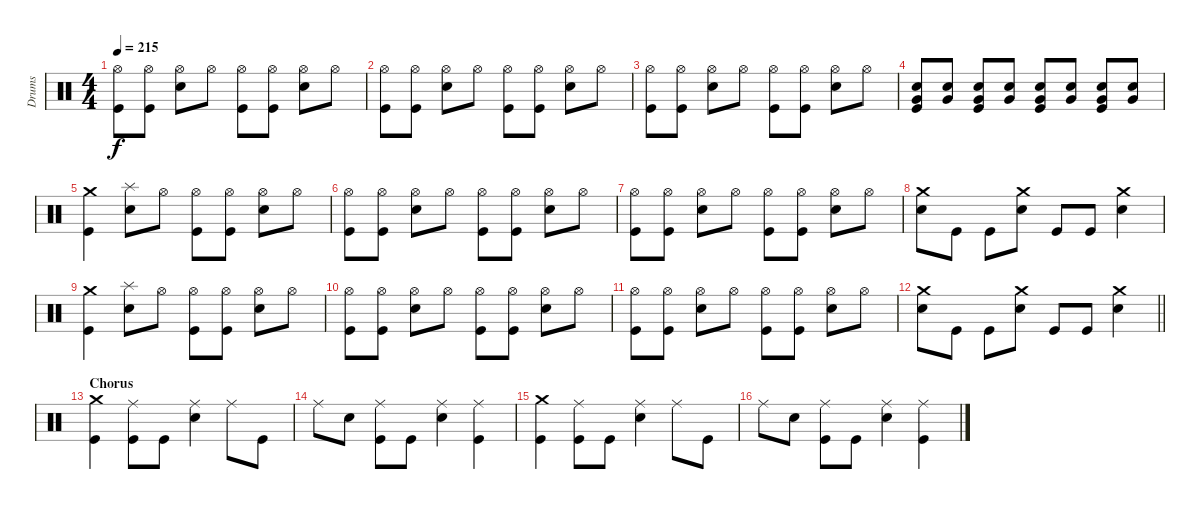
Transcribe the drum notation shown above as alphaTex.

\track ("Drums" "Drums") {instrument percussion}
\staff {score}
\articulation defaults
\ts (4 4)
\tempo 215
\clef neutral
\ks c
("Kick (hit)" "Hi-Hat (open)").8{dy f} ("Kick (hit)" "Hi-Hat (open)").8 ("Snare (hit) 2" "Hi-Hat (open)").8 "Hi-Hat (open)".8 ("Kick (hit)" "Hi-Hat (open)").8 ("Kick (hit)" "Hi-Hat (open)").8 ("Snare (hit) 2" "Hi-Hat (open)").8 "Hi-Hat (open)".8 |
("Kick (hit)" "Hi-Hat (open)").8 ("Kick (hit)" "Hi-Hat (open)").8 ("Snare (hit) 2" "Hi-Hat (open)").8 "Hi-Hat (open)".8 ("Kick (hit)" "Hi-Hat (open)").8 ("Kick (hit)" "Hi-Hat (open)").8 ("Snare (hit) 2" "Hi-Hat (open)").8 "Hi-Hat (open)".8 |
("Kick (hit)" "Hi-Hat (open)").8 ("Kick (hit)" "Hi-Hat (open)").8 ("Snare (hit) 2" "Hi-Hat (open)").8 "Hi-Hat (open)".8 ("Kick (hit)" "Hi-Hat (open)").8 ("Kick (hit)" "Hi-Hat (open)").8 ("Snare (hit) 2" "Hi-Hat (open)").8 "Hi-Hat (open)".8 |
("Kick (hit)" "Very Low Tom (hit)" "Snare (hit) 2").8 ("Snare (hit) 2" "Very Low Tom (hit)").8 ("Kick (hit)" "Very Low Tom (hit)" "Snare (hit) 2").8 ("Snare (hit) 2" "Very Low Tom (hit)").8 ("Kick (hit)" "Very Low Tom (hit)" "Snare (hit) 2").8 ("Snare (hit) 2" "Very Low Tom (hit)").8 ("Kick (hit)" "Very Low Tom (hit)" "Snare (hit) 2").8 ("Snare (hit) 2" "Very Low Tom (hit)").8 |
("Kick (hit)" "Crash medium (hit)").4 ("Snare (hit) 2" "Splash (hit)").8 "Hi-Hat (open)".8 ("Kick (hit)" "Hi-Hat (open)").8 ("Kick (hit)" "Hi-Hat (open)").8 ("Snare (hit) 2" "Hi-Hat (open)").8 "Hi-Hat (open)".8 |
("Kick (hit)" "Hi-Hat (open)").8 ("Kick (hit)" "Hi-Hat (open)").8 ("Snare (hit) 2" "Hi-Hat (open)").8 "Hi-Hat (open)".8 ("Kick (hit)" "Hi-Hat (open)").8 ("Kick (hit)" "Hi-Hat (open)").8 ("Snare (hit) 2" "Hi-Hat (open)").8 "Hi-Hat (open)".8 |
("Kick (hit)" "Hi-Hat (open)").8 ("Kick (hit)" "Hi-Hat (open)").8 ("Snare (hit) 2" "Hi-Hat (open)").8 "Hi-Hat (open)".8 ("Kick (hit)" "Hi-Hat (open)").8 ("Kick (hit)" "Hi-Hat (open)").8 ("Snare (hit) 2" "Hi-Hat (open)").8 "Hi-Hat (open)".8 |
("Snare (hit) 2" "Crash medium (hit)").8 "Kick (hit)".8 "Kick (hit)".8 ("Snare (hit) 2" "Crash medium (hit)").8 "Kick (hit)".8 "Kick (hit)".8 ("Snare (hit) 2" "Crash medium (hit)").4 |
("Kick (hit)" "Crash medium (hit)").4 ("Snare (hit) 2" "Splash (hit)").8 "Hi-Hat (open)".8 ("Kick (hit)" "Hi-Hat (open)").8 ("Kick (hit)" "Hi-Hat (open)").8 ("Snare (hit) 2" "Hi-Hat (open)").8 "Hi-Hat (open)".8 |
("Kick (hit)" "Hi-Hat (open)").8 ("Kick (hit)" "Hi-Hat (open)").8 ("Snare (hit) 2" "Hi-Hat (open)").8 "Hi-Hat (open)".8 ("Kick (hit)" "Hi-Hat (open)").8 ("Kick (hit)" "Hi-Hat (open)").8 ("Snare (hit) 2" "Hi-Hat (open)").8 "Hi-Hat (open)".8 |
("Kick (hit)" "Hi-Hat (open)").8 ("Kick (hit)" "Hi-Hat (open)").8 ("Snare (hit) 2" "Hi-Hat (open)").8 "Hi-Hat (open)".8 ("Kick (hit)" "Hi-Hat (open)").8 ("Kick (hit)" "Hi-Hat (open)").8 ("Snare (hit) 2" "Hi-Hat (open)").8 "Hi-Hat (open)".8 |
\barLineRight lightlight
("Snare (hit) 2" "Crash medium (hit)").8 "Kick (hit)".8 "Kick (hit)".8 ("Snare (hit) 2" "Crash medium (hit)").8 "Kick (hit)".8 "Kick (hit)".8 ("Snare (hit) 2" "Crash medium (hit)").4 |
\section ("" "Chorus")
("Crash medium (hit)" "Kick (hit)").4 ("Kick (hit)" "Ride (middle)").8 "Kick (hit)".8 ("Snare (hit) 2" "Ride (middle)").4 "Ride (middle)".8 "Kick (hit)".8 |
"Ride (middle)".8 "Snare (hit) 2".8 ("Kick (hit)" "Ride (middle)").8 "Kick (hit)".8 ("Snare (hit) 2" "Ride (middle)").4 ("Kick (hit)" "Ride (middle)").4 |
("Crash medium (hit)" "Kick (hit)").4 ("Kick (hit)" "Ride (middle)").8 "Kick (hit)".8 ("Snare (hit) 2" "Ride (middle)").4 "Ride (middle)".8 "Kick (hit)".8 |
"Ride (middle)".8 "Snare (hit) 2".8 ("Kick (hit)" "Ride (middle)").8 "Kick (hit)".8 ("Snare (hit) 2" "Ride (middle)").4 ("Ride (middle)" "Kick (hit)").4
